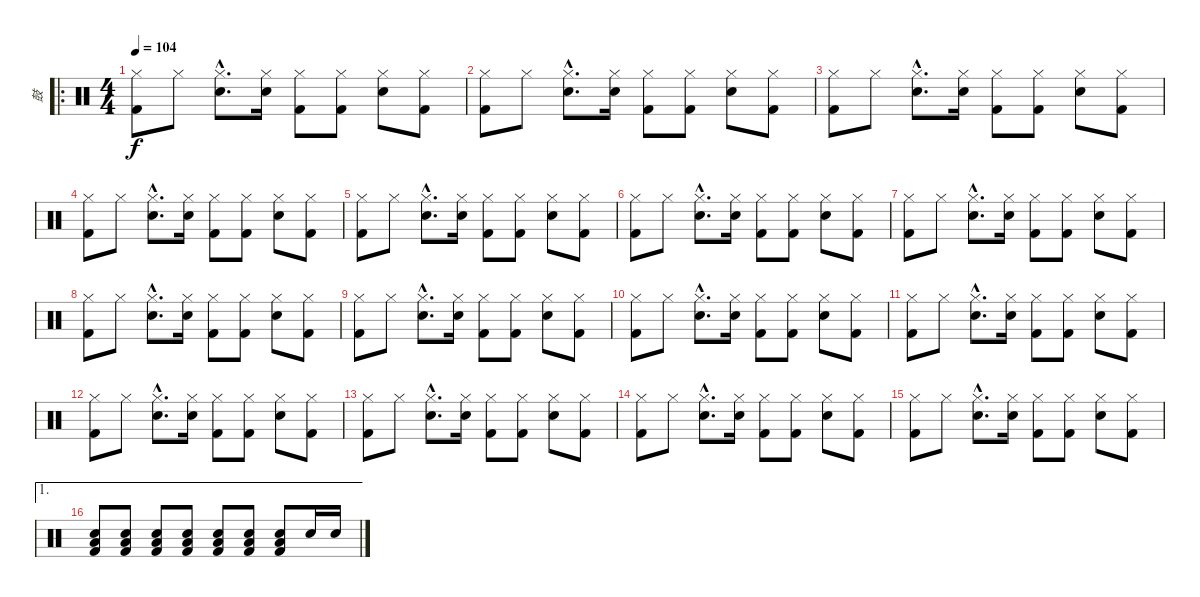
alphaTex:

\track ("鼓" "鼓") {instrument percussion}
\staff {score}
\articulation defaults
\ro
\ts (4 4)
\tempo 104
\clef neutral
\ks c
("Hi-Hat (closed)" "Kick (hit) 2").8{dy f} "Hi-Hat (closed)".8 ("Hi-Hat (closed)"{hac} "Snare (hit) 2"{hac}).8{d} ("Hi-Hat (closed)" "Snare (hit) 2").16 ("Hi-Hat (closed)" "Kick (hit) 2").8 ("Hi-Hat (closed)" "Kick (hit) 2").8 ("Hi-Hat (closed)" "Snare (hit) 2").8 ("Hi-Hat (closed)" "Kick (hit) 2").8 |
("Hi-Hat (closed)" "Kick (hit) 2").8 "Hi-Hat (closed)".8 ("Hi-Hat (closed)"{hac} "Snare (hit) 2"{hac}).8{d} ("Hi-Hat (closed)" "Snare (hit) 2").16 ("Hi-Hat (closed)" "Kick (hit) 2").8 ("Hi-Hat (closed)" "Kick (hit) 2").8 ("Hi-Hat (closed)" "Snare (hit) 2").8 ("Hi-Hat (closed)" "Kick (hit) 2").8 |
("Hi-Hat (closed)" "Kick (hit) 2").8 "Hi-Hat (closed)".8 ("Hi-Hat (closed)"{hac} "Snare (hit) 2"{hac}).8{d} ("Hi-Hat (closed)" "Snare (hit) 2").16 ("Hi-Hat (closed)" "Kick (hit) 2").8 ("Hi-Hat (closed)" "Kick (hit) 2").8 ("Hi-Hat (closed)" "Snare (hit) 2").8 ("Hi-Hat (closed)" "Kick (hit) 2").8 |
("Hi-Hat (closed)" "Kick (hit) 2").8 "Hi-Hat (closed)".8 ("Hi-Hat (closed)"{hac} "Snare (hit) 2"{hac}).8{d} ("Hi-Hat (closed)" "Snare (hit) 2").16 ("Hi-Hat (closed)" "Kick (hit) 2").8 ("Hi-Hat (closed)" "Kick (hit) 2").8 ("Hi-Hat (closed)" "Snare (hit) 2").8 ("Hi-Hat (closed)" "Kick (hit) 2").8 |
("Hi-Hat (closed)" "Kick (hit) 2").8 "Hi-Hat (closed)".8 ("Hi-Hat (closed)"{hac} "Snare (hit) 2"{hac}).8{d} ("Hi-Hat (closed)" "Snare (hit) 2").16 ("Hi-Hat (closed)" "Kick (hit) 2").8 ("Hi-Hat (closed)" "Kick (hit) 2").8 ("Hi-Hat (closed)" "Snare (hit) 2").8 ("Hi-Hat (closed)" "Kick (hit) 2").8 |
("Hi-Hat (closed)" "Kick (hit) 2").8 "Hi-Hat (closed)".8 ("Hi-Hat (closed)"{hac} "Snare (hit) 2"{hac}).8{d} ("Hi-Hat (closed)" "Snare (hit) 2").16 ("Hi-Hat (closed)" "Kick (hit) 2").8 ("Hi-Hat (closed)" "Kick (hit) 2").8 ("Hi-Hat (closed)" "Snare (hit) 2").8 ("Hi-Hat (closed)" "Kick (hit) 2").8 |
("Hi-Hat (closed)" "Kick (hit) 2").8 "Hi-Hat (closed)".8 ("Hi-Hat (closed)"{hac} "Snare (hit) 2"{hac}).8{d} ("Hi-Hat (closed)" "Snare (hit) 2").16 ("Hi-Hat (closed)" "Kick (hit) 2").8 ("Hi-Hat (closed)" "Kick (hit) 2").8 ("Hi-Hat (closed)" "Snare (hit) 2").8 ("Hi-Hat (closed)" "Kick (hit) 2").8 |
("Hi-Hat (closed)" "Kick (hit) 2").8 "Hi-Hat (closed)".8 ("Hi-Hat (closed)"{hac} "Snare (hit) 2"{hac}).8{d} ("Hi-Hat (closed)" "Snare (hit) 2").16 ("Hi-Hat (closed)" "Kick (hit) 2").8 ("Hi-Hat (closed)" "Kick (hit) 2").8 ("Hi-Hat (closed)" "Snare (hit) 2").8 ("Hi-Hat (closed)" "Kick (hit) 2").8 |
("Hi-Hat (closed)" "Kick (hit) 2").8 "Hi-Hat (closed)".8 ("Hi-Hat (closed)"{hac} "Snare (hit) 2"{hac}).8{d} ("Hi-Hat (closed)" "Snare (hit) 2").16 ("Hi-Hat (closed)" "Kick (hit) 2").8 ("Hi-Hat (closed)" "Kick (hit) 2").8 ("Hi-Hat (closed)" "Snare (hit) 2").8 ("Hi-Hat (closed)" "Kick (hit) 2").8 |
("Hi-Hat (closed)" "Kick (hit) 2").8 "Hi-Hat (closed)".8 ("Hi-Hat (closed)"{hac} "Snare (hit) 2"{hac}).8{d} ("Hi-Hat (closed)" "Snare (hit) 2").16 ("Hi-Hat (closed)" "Kick (hit) 2").8 ("Hi-Hat (closed)" "Kick (hit) 2").8 ("Hi-Hat (closed)" "Snare (hit) 2").8 ("Hi-Hat (closed)" "Kick (hit) 2").8 |
("Hi-Hat (closed)" "Kick (hit) 2").8 "Hi-Hat (closed)".8 ("Hi-Hat (closed)"{hac} "Snare (hit) 2"{hac}).8{d} ("Hi-Hat (closed)" "Snare (hit) 2").16 ("Hi-Hat (closed)" "Kick (hit) 2").8 ("Hi-Hat (closed)" "Kick (hit) 2").8 ("Hi-Hat (closed)" "Snare (hit) 2").8 ("Hi-Hat (closed)" "Kick (hit) 2").8 |
("Hi-Hat (closed)" "Kick (hit) 2").8 "Hi-Hat (closed)".8 ("Hi-Hat (closed)"{hac} "Snare (hit) 2"{hac}).8{d} ("Hi-Hat (closed)" "Snare (hit) 2").16 ("Hi-Hat (closed)" "Kick (hit) 2").8 ("Hi-Hat (closed)" "Kick (hit) 2").8 ("Hi-Hat (closed)" "Snare (hit) 2").8 ("Hi-Hat (closed)" "Kick (hit) 2").8 |
("Hi-Hat (closed)" "Kick (hit) 2").8 "Hi-Hat (closed)".8 ("Hi-Hat (closed)"{hac} "Snare (hit) 2"{hac}).8{d} ("Hi-Hat (closed)" "Snare (hit) 2").16 ("Hi-Hat (closed)" "Kick (hit) 2").8 ("Hi-Hat (closed)" "Kick (hit) 2").8 ("Hi-Hat (closed)" "Snare (hit) 2").8 ("Hi-Hat (closed)" "Kick (hit) 2").8 |
("Hi-Hat (closed)" "Kick (hit) 2").8 "Hi-Hat (closed)".8 ("Hi-Hat (closed)"{hac} "Snare (hit) 2"{hac}).8{d} ("Hi-Hat (closed)" "Snare (hit) 2").16 ("Hi-Hat (closed)" "Kick (hit) 2").8 ("Hi-Hat (closed)" "Kick (hit) 2").8 ("Hi-Hat (closed)" "Snare (hit) 2").8 ("Hi-Hat (closed)" "Kick (hit) 2").8 |
("Hi-Hat (closed)" "Kick (hit) 2").8 "Hi-Hat (closed)".8 ("Hi-Hat (closed)"{hac} "Snare (hit) 2"{hac}).8{d} ("Hi-Hat (closed)" "Snare (hit) 2").16 ("Hi-Hat (closed)" "Kick (hit) 2").8 ("Hi-Hat (closed)" "Kick (hit) 2").8 ("Hi-Hat (closed)" "Snare (hit) 2").8 ("Hi-Hat (closed)" "Kick (hit) 2").8 |
\ae 1
("Snare (hit) 2" "Low Tom (hit)" "Kick (hit) 2").8 ("Snare (hit) 2" "Low Tom (hit)" "Kick (hit) 2").8 ("Snare (hit) 2" "Low Tom (hit)" "Kick (hit) 2").8 ("Snare (hit) 2" "Low Tom (hit)" "Kick (hit) 2").8 ("Snare (hit) 2" "Low Tom (hit)" "Kick (hit) 2").8 ("Snare (hit) 2" "Low Tom (hit)" "Kick (hit) 2").8 ("Snare (hit) 2" "Low Tom (hit)" "Kick (hit) 2").8 "Snare (hit) 2".16 "Snare (hit) 2".16
